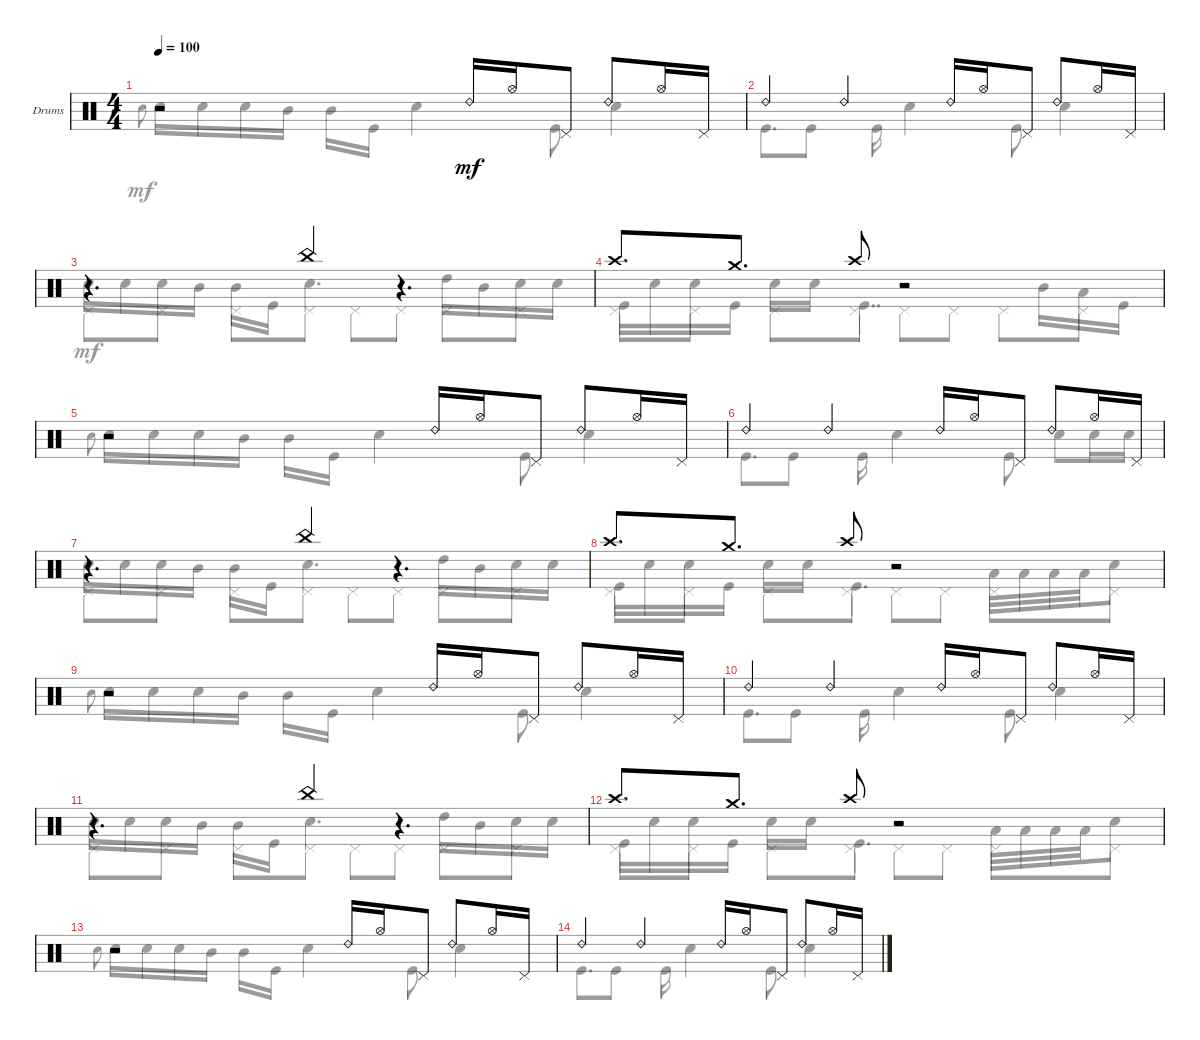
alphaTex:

\defaultSystemsLayout 4
\bracketExtendMode groupsimilarinstruments
\firstSystemTrackNameOrientation horizontal
\otherSystemsTrackNameOrientation horizontal
\track ("Drumkit" "Drums") {instrument percussion}
\staff {score}
\articulation defaults
\voice
\ts (4 4)
\tempo 100
\clef neutral
\ks c
r.2{dy mf} "Ride (bell) 2".16 "Hi-Hat (open)".16 "Pedal Hi-Hat (hit)".8 "Ride (bell) 2".8 "Hi-Hat (open)".16 "Pedal Hi-Hat (hit)".16 |
"Ride (bell) 2".4 "Ride (bell) 2".4 "Ride (bell) 2".16 "Hi-Hat (open)".16 "Pedal Hi-Hat (hit)".8 "Ride (bell) 2".8 "Hi-Hat (open)".16 "Pedal Hi-Hat (hit)".16 |
r.4{d} "China (hit)".4 r.4{d} |
"Crash high (hit)".8{d} "Crash medium (hit)".8{d} "Crash high (hit)".8 r.2 |
r.2 "Ride (bell) 2".16 "Hi-Hat (open)".16 "Pedal Hi-Hat (hit)".8 "Ride (bell) 2".8 "Hi-Hat (open)".16 "Pedal Hi-Hat (hit)".16 |
"Ride (bell) 2".4 "Ride (bell) 2".4 "Ride (bell) 2".16 "Hi-Hat (open)".16 "Pedal Hi-Hat (hit)".8 "Ride (bell) 2".8 "Hi-Hat (open)".16 "Pedal Hi-Hat (hit)".16 |
r.4{d} "China (hit)".4 r.4{d} |
"Crash high (hit)".8{d} "Crash medium (hit)".8{d} "Crash high (hit)".8 r.2 |
r.2 "Ride (bell) 2".16 "Hi-Hat (open)".16 "Pedal Hi-Hat (hit)".8 "Ride (bell) 2".8 "Hi-Hat (open)".16 "Pedal Hi-Hat (hit)".16 |
"Ride (bell) 2".4 "Ride (bell) 2".4 "Ride (bell) 2".16 "Hi-Hat (open)".16 "Pedal Hi-Hat (hit)".8 "Ride (bell) 2".8 "Hi-Hat (open)".16 "Pedal Hi-Hat (hit)".16 |
r.4{d} "China (hit)".4 r.4{d} |
"Crash high (hit)".8{d} "Crash medium (hit)".8{d} "Crash high (hit)".8 r.2 |
r.2 "Ride (bell) 2".16 "Hi-Hat (open)".16 "Pedal Hi-Hat (hit)".8 "Ride (bell) 2".8 "Hi-Hat (open)".16 "Pedal Hi-Hat (hit)".16 |
"Ride (bell) 2".4 "Ride (bell) 2".4 "Ride (bell) 2".16 "Hi-Hat (open)".16 "Pedal Hi-Hat (hit)".8 "Ride (bell) 2".8 "Hi-Hat (open)".16 "Pedal Hi-Hat (hit)".16
\voice
\clef neutral
\ottava regular
\simile none
\ks c "Snare (hit) 2".8{gr onbeat dy mf} "Snare (hit) 2".16 "Snare (hit) 2".16 "Snare (hit) 2".16 "Mid Tom (hit)".16 "Mid Tom (hit)".16 "Kick (hit)".16 "Snare (hit) 2".4 "Kick (hit)".8 "Snare (hit) 2".4
|
"Kick (hit)".8{d} "Kick (hit)".8 "Kick (hit)".16 "Snare (hit) 2".4 "Kick (hit)".8 "Snare (hit) 2".4 |
"Snare (hit) 2".16 "Snare (hit) 2".16 "Snare (hit) 2".16 "Mid Tom (hit)".16 "Mid Tom (hit)".16 "Kick (hit)".16 "Snare (hit) 2".4{d} "High Tom (hit)".16 "Mid Tom (hit)".16 "Snare (hit) 2".16 "Snare (hit) 2".16 |
"Kick (hit)".16 "Snare (hit) 2".16 "Snare (hit) 2".16 "Kick (hit)".16 "Snare (hit) 2".16 "Snare (hit) 2".16 "Kick (hit)".4{dd} "Mid Tom (hit)".16 "Low Tom (hit)".16 "Kick (hit)".16 |
"Snare (hit) 2".8{gr onbeat} "Snare (hit) 2".16 "Snare (hit) 2".16 "Snare (hit) 2".16 "Mid Tom (hit)".16 "Mid Tom (hit)".16 "Kick (hit)".16 "Snare (hit) 2".4 "Kick (hit)".8 "Snare (hit) 2".4 |
"Kick (hit)".8{d} "Kick (hit)".8 "Kick (hit)".16 "Snare (hit) 2".4 "Kick (hit)".8 "Snare (hit) 2".8 "Snare (hit) 2".16 "Snare (hit) 2".16 |
"Snare (hit) 2".16 "Snare (hit) 2".16 "Snare (hit) 2".16 "Mid Tom (hit)".16 "Mid Tom (hit)".16 "Kick (hit)".16 "Snare (hit) 2".4{d} "High Tom (hit)".16 "Mid Tom (hit)".16 "Snare (hit) 2".16 "Snare (hit) 2".16 |
"Kick (hit)".16 "Snare (hit) 2".16 "Snare (hit) 2".16 "Kick (hit)".16 "Snare (hit) 2".16 "Snare (hit) 2".16 "Kick (hit)".4{d} "Low Tom (hit)".32 "Low Tom (hit)".32 "Low Tom (hit)".32 "Low Tom (hit)".32 "Snare (hit) 2".8 |
"Snare (hit) 2".8{gr onbeat} "Snare (hit) 2".16 "Snare (hit) 2".16 "Snare (hit) 2".16 "Mid Tom (hit)".16 "Mid Tom (hit)".16 "Kick (hit)".16 "Snare (hit) 2".4 "Kick (hit)".8 "Snare (hit) 2".4 |
"Kick (hit)".8{d} "Kick (hit)".8 "Kick (hit)".16 "Snare (hit) 2".4 "Kick (hit)".8 "Snare (hit) 2".4 |
"Snare (hit) 2".16 "Snare (hit) 2".16 "Snare (hit) 2".16 "Mid Tom (hit)".16 "Mid Tom (hit)".16 "Kick (hit)".16 "Snare (hit) 2".4{d} "High Tom (hit)".16 "Mid Tom (hit)".16 "Snare (hit) 2".16 "Snare (hit) 2".16 |
"Kick (hit)".16 "Snare (hit) 2".16 "Snare (hit) 2".16 "Kick (hit)".16 "Snare (hit) 2".16 "Snare (hit) 2".16 "Kick (hit)".4{d} "Low Tom (hit)".32 "Low Tom (hit)".32 "Low Tom (hit)".32 "Low Tom (hit)".32 "Snare (hit) 2".8 |
"Snare (hit) 2".8{gr onbeat} "Snare (hit) 2".16 "Snare (hit) 2".16 "Snare (hit) 2".16 "Mid Tom (hit)".16 "Mid Tom (hit)".16 "Kick (hit)".16 "Snare (hit) 2".4 "Kick (hit)".8 "Snare (hit) 2".4 |
"Kick (hit)".8{d} "Kick (hit)".8 "Kick (hit)".16 "Snare (hit) 2".4 "Kick (hit)".8 "Snare (hit) 2".4
\voice
\clef neutral
\ottava regular
\simile none
\ks c
|
|
"Pedal Hi-Hat (hit)".8 "Pedal Hi-Hat (hit)".8 "Pedal Hi-Hat (hit)".8 "Pedal Hi-Hat (hit)".8 "Pedal Hi-Hat (hit)".8 "Pedal Hi-Hat (hit)".8 "Pedal Hi-Hat (hit)".8 "Pedal Hi-Hat (hit)".8 |
"Pedal Hi-Hat (hit)".8 "Pedal Hi-Hat (hit)".8 "Pedal Hi-Hat (hit)".8 "Pedal Hi-Hat (hit)".8 "Pedal Hi-Hat (hit)".8 "Pedal Hi-Hat (hit)".8 "Pedal Hi-Hat (hit)".8 "Pedal Hi-Hat (hit)".8 |
|
|
"Pedal Hi-Hat (hit)".8 "Pedal Hi-Hat (hit)".8 "Pedal Hi-Hat (hit)".8 "Pedal Hi-Hat (hit)".8 "Pedal Hi-Hat (hit)".8 "Pedal Hi-Hat (hit)".8 "Pedal Hi-Hat (hit)".8 "Pedal Hi-Hat (hit)".8 |
"Pedal Hi-Hat (hit)".8 "Pedal Hi-Hat (hit)".8 "Pedal Hi-Hat (hit)".8 "Pedal Hi-Hat (hit)".8 "Pedal Hi-Hat (hit)".8 "Pedal Hi-Hat (hit)".8 "Pedal Hi-Hat (hit)".8 "Pedal Hi-Hat (hit)".8 |
|
|
"Pedal Hi-Hat (hit)".8 "Pedal Hi-Hat (hit)".8 "Pedal Hi-Hat (hit)".8 "Pedal Hi-Hat (hit)".8 "Pedal Hi-Hat (hit)".8 "Pedal Hi-Hat (hit)".8 "Pedal Hi-Hat (hit)".8 "Pedal Hi-Hat (hit)".8 |
"Pedal Hi-Hat (hit)".8 "Pedal Hi-Hat (hit)".8 "Pedal Hi-Hat (hit)".8 "Pedal Hi-Hat (hit)".8 "Pedal Hi-Hat (hit)".8 "Pedal Hi-Hat (hit)".8 "Pedal Hi-Hat (hit)".8 "Pedal Hi-Hat (hit)".8 |
|
